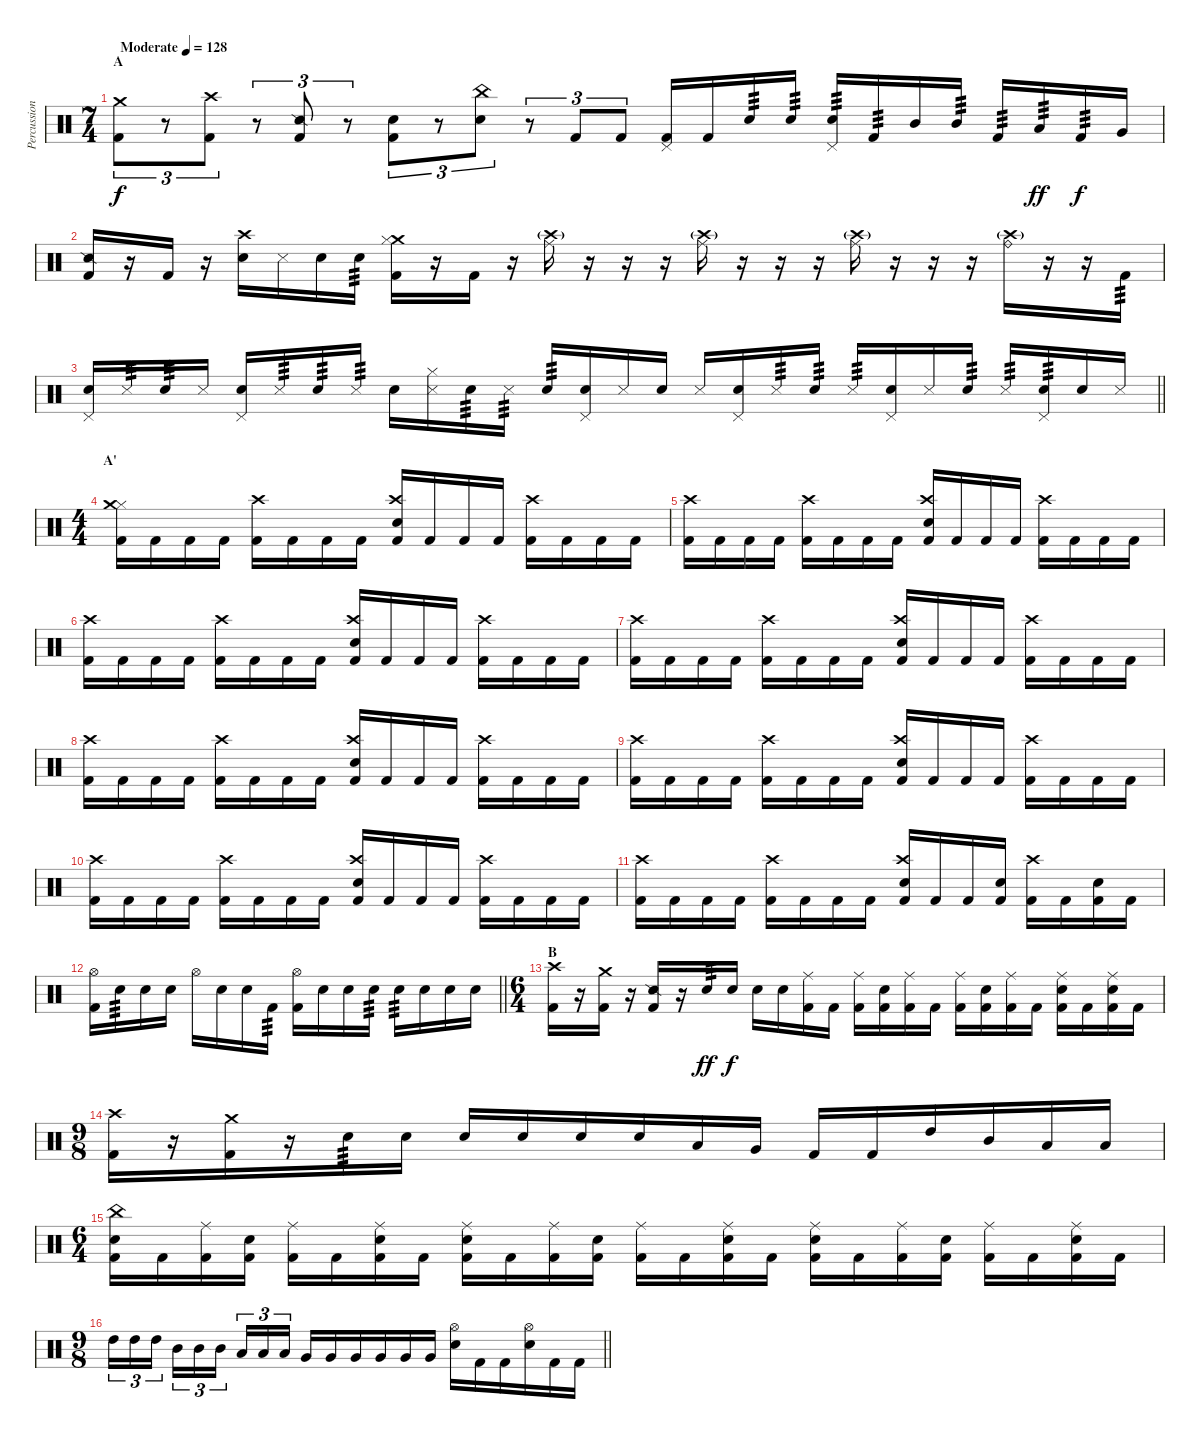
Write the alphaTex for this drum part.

\track ("Percussion" "Percussion") {instrument percussion}
\staff {score}
\articulation defaults
\ts (7 4)
\section ("" "A")
\tempo (128 "Moderate")
\clef neutral
\ks c
("Crash medium (hit)" "Kick (hit) 2").8{tu (3 2) dy f} r.8{tu (3 2)} ("Crash high (hit)" "Kick (hit) 2").8{tu (3 2)} r.8{tu (3 2)} ("Snare (side stick) 2" "Kick (hit) 2").8{tu (3 2)} r.8{tu (3 2)} ("Snare (hit)" "Kick (hit) 2").8{tu (3 2)} r.8{tu (3 2)} ("China (hit)" "Snare (hit) 2").8{tu (3 2)} r.8{tu (3 2)} "Kick (hit) 2".8{tu (3 2)} "Kick (hit) 2".8{tu (3 2)} ("Pedal Hi-Hat (hit)" "Kick (hit) 2").16 "Kick (hit) 2".16 "Snare (hit) 2".16{tp 3} "Snare (hit) 2".16{tp 3} ("Pedal Hi-Hat (hit)" "Snare (hit) 2").16{tp 3} "Kick (hit) 2".16{tp 3} "Mid Tom (hit)".16 "Mid Tom (hit)".16{tp 3} "Kick (hit) 2".16{tp 3} "Low Tom (hit)".16{tp 3 dy ff} "Kick (hit) 2".16{tp 3 dy f} "Very Low Tom (hit)".16 |
("Snare (side stick) 2" "Kick (hit) 2").16 r.16 "Kick (hit) 2".16 r.16 ("Crash high (hit)" "Snare (hit) 2").16 "Metronome (hit)".16 "Snare (hit) 2".16 "Snare (hit) 2".16{tp 3} ("Crash medium (hit)" "Hi-Hat (closed)" "Kick (hit) 2").16 r.16 "Kick (hit) 2".16 r.16 ("Ride (middle)" "Crash high (hit)"{g}).16 r.16 r.16 r.16 ("Ride (middle)" "Crash high (hit)"{g}).16 r.16 r.16 r.16 ("Ride (middle)" "Crash high (hit)"{g}).16 r.16 r.16 r.16 ("Ride (bell)" "Crash high (hit)"{g}).16 r.16 r.16 "Kick (hit) 2".16{tp 3} |
\barLineRight lightlight
("Pedal Hi-Hat (hit)" "Snare (hit) 2").16 "Metronome (hit)".16{tp 3} "Snare (hit) 2".16{tp 3} "Metronome (hit)".16 ("Pedal Hi-Hat (hit)" "Snare (hit) 2").16 "Metronome (hit)".16{tp 3} "Snare (hit) 2".16{tp 3} "Metronome (hit)".16{tp 3} "Snare (hit) 2".16 ("Hi-Hat (closed)" "Metronome (hit)").16 "Snare (hit) 2".16{tp 3} "Metronome (hit)".16{tp 3} "Snare (hit) 2".16{tp 3} ("Pedal Hi-Hat (hit)" "Snare (hit) 2").16 "Metronome (hit)".16 "Snare (hit) 2".16 "Metronome (hit)".16 ("Pedal Hi-Hat (hit)" "Snare (hit) 2").16 "Metronome (hit)".16{tp 3} "Snare (hit) 2".16{tp 3} "Metronome (hit)".16{tp 3} ("Pedal Hi-Hat (hit)" "Snare (hit) 2").16 "Metronome (hit)".16 "Snare (hit) 2".16{tp 3} "Metronome (hit)".16{tp 3} ("Pedal Hi-Hat (hit)" "Snare (hit) 2").16{tp 3} "Snare (hit) 2".16 "Metronome (hit)".16 |
\ts (4 4)
\section ("" "A'")
("Hi-Hat (closed)" "Crash medium (hit)" "Kick (hit) 2").16 "Kick (hit) 2".16 "Kick (hit) 2".16 "Kick (hit) 2".16 ("Crash high (hit)" "Kick (hit) 2").16 "Kick (hit) 2".16 "Kick (hit) 2".16 "Kick (hit) 2".16 ("Crash high (hit)" "Snare (hit) 2" "Kick (hit) 2").16 "Kick (hit) 2".16 "Kick (hit) 2".16 "Kick (hit) 2".16 ("Crash high (hit)" "Kick (hit) 2").16 "Kick (hit) 2".16 "Kick (hit) 2".16 "Kick (hit) 2".16 |
("Crash high (hit)" "Kick (hit) 2").16 "Kick (hit) 2".16 "Kick (hit) 2".16 "Kick (hit) 2".16 ("Crash high (hit)" "Kick (hit) 2").16 "Kick (hit) 2".16 "Kick (hit) 2".16 "Kick (hit) 2".16 ("Crash high (hit)" "Snare (hit) 2" "Kick (hit) 2").16 "Kick (hit) 2".16 "Kick (hit) 2".16 "Kick (hit) 2".16 ("Crash high (hit)" "Kick (hit) 2").16 "Kick (hit) 2".16 "Kick (hit) 2".16 "Kick (hit) 2".16 |
("Crash high (hit)" "Kick (hit) 2").16 "Kick (hit) 2".16 "Kick (hit) 2".16 "Kick (hit) 2".16 ("Crash high (hit)" "Kick (hit) 2").16 "Kick (hit) 2".16 "Kick (hit) 2".16 "Kick (hit) 2".16 ("Crash high (hit)" "Snare (hit) 2" "Kick (hit) 2").16 "Kick (hit) 2".16 "Kick (hit) 2".16 "Kick (hit) 2".16 ("Crash high (hit)" "Kick (hit) 2").16 "Kick (hit) 2".16 "Kick (hit) 2".16 "Kick (hit) 2".16 |
("Crash high (hit)" "Kick (hit) 2").16 "Kick (hit) 2".16 "Kick (hit) 2".16 "Kick (hit) 2".16 ("Crash high (hit)" "Kick (hit) 2").16 "Kick (hit) 2".16 "Kick (hit) 2".16 "Kick (hit) 2".16 ("Crash high (hit)" "Snare (hit) 2" "Kick (hit) 2").16 "Kick (hit) 2".16 "Kick (hit) 2".16 "Kick (hit) 2".16 ("Crash high (hit)" "Kick (hit) 2").16 "Kick (hit) 2".16 "Kick (hit) 2".16 "Kick (hit) 2".16 |
("Crash high (hit)" "Kick (hit) 2").16 "Kick (hit) 2".16 "Kick (hit) 2".16 "Kick (hit) 2".16 ("Crash high (hit)" "Kick (hit) 2").16 "Kick (hit) 2".16 "Kick (hit) 2".16 "Kick (hit) 2".16 ("Crash high (hit)" "Snare (hit) 2" "Kick (hit) 2").16 "Kick (hit) 2".16 "Kick (hit) 2".16 "Kick (hit) 2".16 ("Crash high (hit)" "Kick (hit) 2").16 "Kick (hit) 2".16 "Kick (hit) 2".16 "Kick (hit) 2".16 |
("Crash high (hit)" "Kick (hit) 2").16 "Kick (hit) 2".16 "Kick (hit) 2".16 "Kick (hit) 2".16 ("Crash high (hit)" "Kick (hit) 2").16 "Kick (hit) 2".16 "Kick (hit) 2".16 "Kick (hit) 2".16 ("Crash high (hit)" "Snare (hit) 2" "Kick (hit) 2").16 "Kick (hit) 2".16 "Kick (hit) 2".16 "Kick (hit) 2".16 ("Crash high (hit)" "Kick (hit) 2").16 "Kick (hit) 2".16 "Kick (hit) 2".16 "Kick (hit) 2".16 |
("Crash high (hit)" "Kick (hit) 2").16 "Kick (hit) 2".16 "Kick (hit) 2".16 "Kick (hit) 2".16 ("Crash high (hit)" "Kick (hit) 2").16 "Kick (hit) 2".16 "Kick (hit) 2".16 "Kick (hit) 2".16 ("Crash high (hit)" "Snare (hit) 2" "Kick (hit) 2").16 "Kick (hit) 2".16 "Kick (hit) 2".16 "Kick (hit) 2".16 ("Crash high (hit)" "Kick (hit) 2").16 "Kick (hit) 2".16 "Kick (hit) 2".16 "Kick (hit) 2".16 |
("Crash high (hit)" "Kick (hit) 2").16 "Kick (hit) 2".16 "Kick (hit) 2".16 "Kick (hit) 2".16 ("Crash high (hit)" "Kick (hit) 2").16 "Kick (hit) 2".16 "Kick (hit) 2".16 "Kick (hit) 2".16 ("Crash high (hit)" "Snare (hit) 2" "Kick (hit) 2").16 "Kick (hit) 2".16 "Kick (hit) 2".16 ("Snare (hit) 2" "Kick (hit) 2").16 ("Crash high (hit)" "Kick (hit) 2").16 "Kick (hit) 2".16 ("Snare (hit) 2" "Kick (hit) 2").16 "Kick (hit) 2".16 |
\barLineRight lightlight
("Hi-Hat (open)" "Kick (hit) 2").16 "Snare (hit) 2".16{tp 3} "Snare (hit) 2".16 "Snare (hit) 2".16 "Hi-Hat (open)".16 "Snare (hit) 2".16 "Snare (hit) 2".16 "Kick (hit) 2".16{tp 3} ("Hi-Hat (open)" "Kick (hit) 2").16 "Snare (hit) 2".16 "Snare (hit) 2".16 "Snare (hit) 2".16{tp 3} "Snare (hit) 2".16{tp 3} "Snare (hit) 2".16 "Snare (hit) 2".16 "Snare (hit) 2".16 |
\ts (6 4)
\section ("" "B")
("Crash high (hit)" "Kick (hit) 2").16 r.16 ("Crash medium (hit)" "Kick (hit) 2").16 r.16 ("Snare (side stick) 2" "Kick (hit) 2").16 r.16 "Snare (hit) 2".16{tp 3 dy ff} "Snare (hit) 2".16{dy f} "Snare (hit) 2".16 "Snare (hit) 2".16 ("Ride (middle)" "Kick (hit) 2").16 "Kick (hit) 2".16 ("Ride (middle)" "Kick (hit) 2").16 ("Snare (hit) 2" "Kick (hit) 2").16 ("Ride (middle)" "Kick (hit) 2").16 "Kick (hit) 2".16 ("Ride (middle)" "Kick (hit) 2").16 ("Snare (hit) 2" "Kick (hit) 2").16 ("Ride (middle)" "Kick (hit) 2").16 "Kick (hit) 2".16 ("Ride (middle)" "Snare (hit) 2" "Kick (hit) 2").16 "Kick (hit) 2".16 ("Ride (middle)" "Snare (hit) 2" "Kick (hit) 2").16 "Kick (hit) 2".16 |
\ts (9 8)
("Crash high (hit)" "Kick (hit) 2").16 r.16 ("Crash medium (hit)" "Kick (hit) 2").16 r.16 "Snare (hit) 2".16{tp 3} "Snare (hit) 2".16 "Snare (hit) 2".16 "Snare (hit) 2".16 "Snare (hit) 2".16 "Snare (hit) 2".16 "Low Tom (hit)".16 "Very Low Tom (hit)".16 "Kick (hit) 2".16 "Kick (hit) 2".16 "High Tom (hit)".16 "Mid Tom (hit)".16 "Low Tom (hit)".16 "Low Tom (hit)".16 |
\ts (6 4)
("China (hit)" "Snare (hit) 2" "Kick (hit) 2").16 "Kick (hit) 2".16 ("Ride (middle)" "Kick (hit) 2").16 ("Snare (hit) 2" "Kick (hit) 2").16 ("Ride (middle)" "Kick (hit) 2").16 "Kick (hit) 2".16 ("Ride (middle)" "Snare (hit) 2" "Kick (hit) 2").16 "Kick (hit) 2".16 ("Ride (middle)" "Snare (hit) 2" "Kick (hit) 2").16 "Kick (hit) 2".16 ("Ride (middle)" "Kick (hit) 2").16 ("Snare (hit) 2" "Kick (hit) 2").16 ("Ride (middle)" "Kick (hit) 2").16 "Kick (hit) 2".16 ("Ride (middle)" "Snare (hit) 2" "Kick (hit) 2").16 "Kick (hit) 2".16 ("Ride (middle)" "Snare (hit) 2" "Kick (hit) 2").16 "Kick (hit) 2".16 ("Ride (middle)" "Kick (hit) 2").16 ("Snare (hit) 2" "Kick (hit) 2").16 ("Ride (middle)" "Kick (hit) 2").16 "Kick (hit) 2".16 ("Ride (middle)" "Snare (hit) 2" "Kick (hit) 2").16 "Kick (hit) 2".16 |
\ts (9 8)
\barLineRight lightlight "High Tom (hit)".16{tu (3 2)} "High Tom (hit)".16{tu (3 2)} "High Tom (hit)".16{tu (3 2) beam splitsecondary} "Mid Tom (hit)".16{tu (3 2)} "Mid Tom (hit)".16{tu (3 2)} "Mid Tom (hit)".16{tu (3 2) beam splitsecondary} "Low Tom (hit)".16{tu (3 2)} "Low Tom (hit)".16{tu (3 2)} "Low Tom (hit)".16{tu (3 2)} "Very Low Tom (hit)".16 "Very Low Tom (hit)".16 "Very Low Tom (hit)".16 "Very Low Tom (hit)".16 "Very Low Tom (hit)".16 "Very Low Tom (hit)".16
("Hi-Hat (open)" "Snare (hit) 2").16 "Kick (hit) 2".16 "Kick (hit) 2".16 ("Hi-Hat (open)" "Snare (hit) 2").16 "Kick (hit) 2".16 "Kick (hit) 2".16
